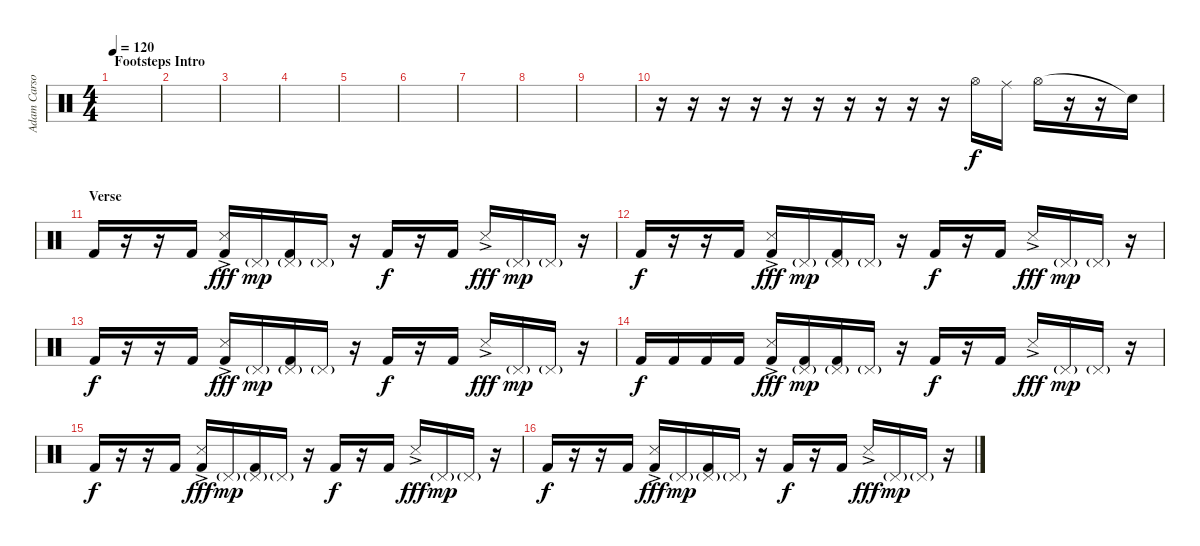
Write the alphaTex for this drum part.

\track ("Adam Carson-Drums" "Adam Carso") {instrument percussion}
\staff {score}
\articulation defaults
\ts (4 4)
\section ("" "Footsteps Intro")
\tempo 120
\clef neutral
\ks c
|
|
|
|
|
|
|
|
|
r.16 r.16 r.16 r.16 r.16 r.16 r.16 r.16 r.16 r.16 "Hi-Hat (open)".16 "Ride (middle)".16 "Hi-Hat (open)".16 r.16 r.16 "Snare (hit)"{t}.16 |
\section ("" "Verse")
"Kick (hit) 2".16{volume 16 balance 8} r.16 r.16 "Kick (hit) 2".16 ("Kick (hit) 2" "Snare (side stick) 3"{ac}).16{dy fff} "Pedal Hi-Hat (hit)"{g}.16{dy mp} ("Kick (hit) 2" "Pedal Hi-Hat (hit)"{g}).16 "Pedal Hi-Hat (hit)"{g}.16 r.16 "Kick (hit) 2".16{dy f} r.16 "Kick (hit) 2".16 "Snare (side stick) 3"{ac}.16{dy fff} "Pedal Hi-Hat (hit)"{g}.16{dy mp} "Pedal Hi-Hat (hit)"{g}.16 r.16 |
"Kick (hit) 2".16{dy f} r.16 r.16 "Kick (hit) 2".16 ("Kick (hit) 2" "Snare (side stick) 3"{ac}).16{dy fff} "Pedal Hi-Hat (hit)"{g}.16{dy mp} ("Kick (hit) 2" "Pedal Hi-Hat (hit)"{g}).16 "Pedal Hi-Hat (hit)"{g}.16 r.16 "Kick (hit) 2".16{dy f} r.16 "Kick (hit) 2".16 "Snare (side stick) 3"{ac}.16{dy fff} "Pedal Hi-Hat (hit)"{g}.16{dy mp} "Pedal Hi-Hat (hit)"{g}.16 r.16 |
"Kick (hit) 2".16{dy f} r.16 r.16 "Kick (hit) 2".16 ("Kick (hit) 2" "Snare (side stick) 3"{ac}).16{dy fff} "Pedal Hi-Hat (hit)"{g}.16{dy mp} ("Kick (hit) 2" "Pedal Hi-Hat (hit)"{g}).16 "Pedal Hi-Hat (hit)"{g}.16 r.16 "Kick (hit) 2".16{dy f} r.16 "Kick (hit) 2".16 "Snare (side stick) 3"{ac}.16{dy fff} "Pedal Hi-Hat (hit)"{g}.16{dy mp} "Pedal Hi-Hat (hit)"{g}.16 r.16 |
"Kick (hit) 2".16{dy f} "Kick (hit) 2".16 "Kick (hit) 2".16 "Kick (hit) 2".16 ("Kick (hit) 2" "Snare (side stick) 3"{ac}).16{dy fff} ("Kick (hit) 2" "Pedal Hi-Hat (hit)"{g}).16{dy mp} ("Kick (hit) 2" "Pedal Hi-Hat (hit)"{g}).16 "Pedal Hi-Hat (hit)"{g}.16 r.16 "Kick (hit) 2".16{dy f} r.16 "Kick (hit) 2".16 "Snare (side stick) 3"{ac}.16{dy fff} "Pedal Hi-Hat (hit)"{g}.16{dy mp} "Pedal Hi-Hat (hit)"{g}.16 r.16 |
"Kick (hit) 2".16{dy f} r.16 r.16 "Kick (hit) 2".16 ("Kick (hit) 2" "Snare (side stick) 3"{ac}).16{dy fff} "Pedal Hi-Hat (hit)"{g}.16{dy mp} ("Kick (hit) 2" "Pedal Hi-Hat (hit)"{g}).16 "Pedal Hi-Hat (hit)"{g}.16 r.16 "Kick (hit) 2".16{dy f} r.16 "Kick (hit) 2".16 "Snare (side stick) 3"{ac}.16{dy fff} "Pedal Hi-Hat (hit)"{g}.16{dy mp} "Pedal Hi-Hat (hit)"{g}.16 r.16 |
"Kick (hit) 2".16{dy f} r.16 r.16 "Kick (hit) 2".16 ("Kick (hit) 2" "Snare (side stick) 3"{ac}).16{dy fff} "Pedal Hi-Hat (hit)"{g}.16{dy mp} ("Kick (hit) 2" "Pedal Hi-Hat (hit)"{g}).16 "Pedal Hi-Hat (hit)"{g}.16 r.16 "Kick (hit) 2".16{dy f} r.16 "Kick (hit) 2".16 "Snare (side stick) 3"{ac}.16{dy fff} "Pedal Hi-Hat (hit)"{g}.16{dy mp} "Pedal Hi-Hat (hit)"{g}.16 r.16
